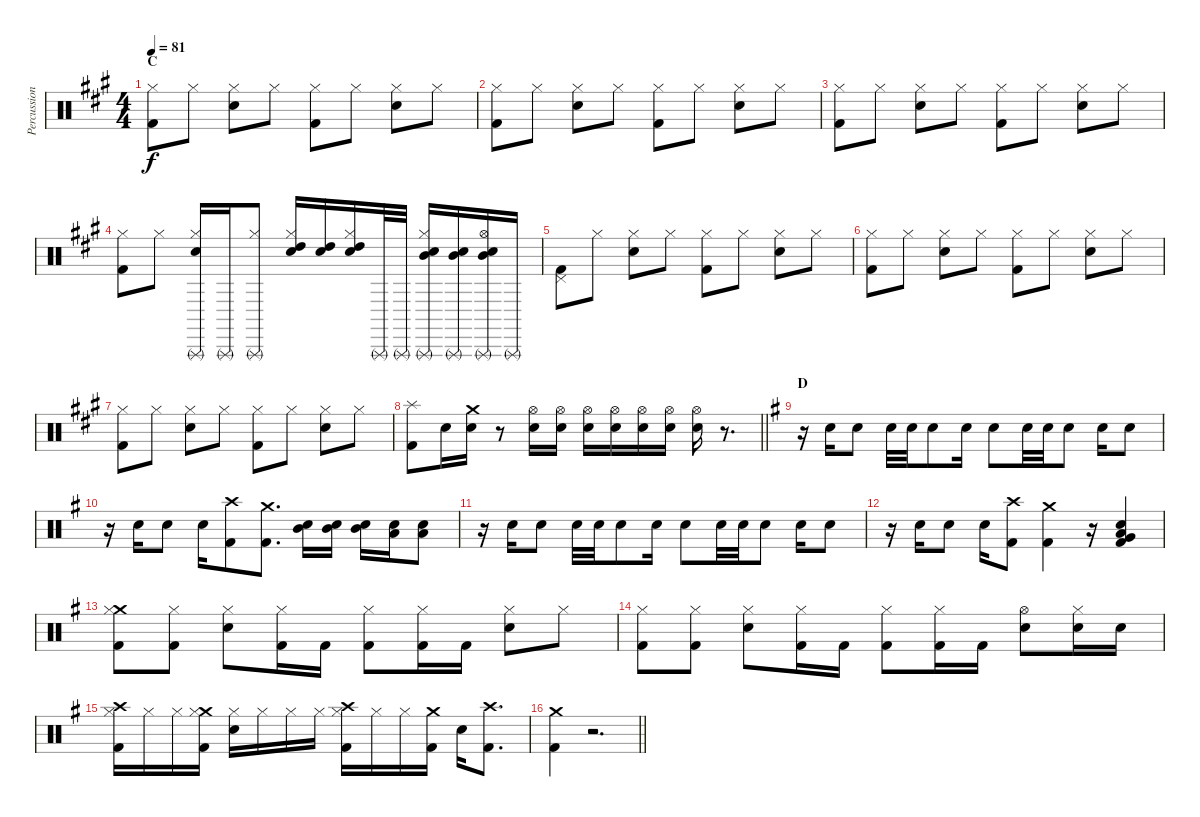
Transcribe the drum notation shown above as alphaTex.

\track ("Percussion" "Percussion") {instrument percussion}
\staff {score}
\articulation defaults
\ts (4 4)
\section ("" "C")
\tempo 81
\clef neutral
\ks f#minor
("Hi-Hat (closed)" "Kick (hit) 2").8{dy f volume 16} "Hi-Hat (closed)".8 ("Hi-Hat (closed)" "Snare (hit) 2").8 "Hi-Hat (closed)".8 ("Hi-Hat (closed)" "Kick (hit) 2").8 "Hi-Hat (closed)".8 ("Hi-Hat (closed)" "Snare (hit) 2").8 "Hi-Hat (closed)".8 |
("Hi-Hat (closed)" "Kick (hit) 2").8 "Hi-Hat (closed)".8 ("Hi-Hat (closed)" "Snare (hit) 2").8 "Hi-Hat (closed)".8 ("Hi-Hat (closed)" "Kick (hit) 2").8 "Hi-Hat (closed)".8 ("Hi-Hat (closed)" "Snare (hit) 2").8 "Hi-Hat (closed)".8 |
("Hi-Hat (closed)" "Kick (hit) 2").8 "Hi-Hat (closed)".8 ("Hi-Hat (closed)" "Snare (hit) 2").8 "Hi-Hat (closed)".8 ("Hi-Hat (closed)" "Kick (hit) 2").8 "Hi-Hat (closed)".8 ("Hi-Hat (closed)" "Snare (hit) 2").8 "Hi-Hat (closed)".8 |
("Hi-Hat (closed)" "Kick (hit) 2").8 "Hi-Hat (closed)".8 ("Triangle (rnute)" "Hi-Hat (closed)" "Snare (hit) 2").16 "Triangle (rnute)".16 ("Triangle (rnute)" "Hi-Hat (closed)").8 ("High Tom (hit)" "Hi-Hat (closed)" "Electric Snare (hit)").16 ("High Tom (hit)" "Electric Snare (hit)").16 ("High Tom (hit)" "Hi-Hat (closed)" "Electric Snare (hit)").16 "Triangle (rnute)".32 "Triangle (rnute)".32 ("Mid Tom (hit)" "Triangle (rnute)" "Hi-Hat (closed)" "Electric Snare (hit)").16 ("Mid Tom (hit)" "Triangle (rnute)" "Electric Snare (hit)").16 ("Mid Tom (hit)" "Triangle (rnute)" "Hi-Hat (open)" "Electric Snare (hit)").16 "Triangle (rnute)".16 |
("Pedal Hi-Hat (hit)" "Kick (hit) 2").8 "Hi-Hat (closed)".8 ("Hi-Hat (closed)" "Snare (hit) 2").8 "Hi-Hat (closed)".8 ("Hi-Hat (closed)" "Kick (hit) 2").8 "Hi-Hat (closed)".8 ("Hi-Hat (closed)" "Snare (hit) 2").8 "Hi-Hat (closed)".8 |
("Hi-Hat (closed)" "Kick (hit) 2").8 "Hi-Hat (closed)".8 ("Hi-Hat (closed)" "Snare (hit) 2").8 "Hi-Hat (closed)".8 ("Hi-Hat (closed)" "Kick (hit) 2").8 "Hi-Hat (closed)".8 ("Hi-Hat (closed)" "Snare (hit) 2").8 "Hi-Hat (closed)".8 |
("Hi-Hat (closed)" "Kick (hit) 2").8 "Hi-Hat (closed)".8 ("Hi-Hat (closed)" "Snare (hit) 2").8 "Hi-Hat (closed)".8 ("Hi-Hat (closed)" "Kick (hit) 2").8 "Hi-Hat (closed)".8 ("Hi-Hat (closed)" "Snare (hit) 2").8 "Hi-Hat (closed)".8 |
\barLineRight lightlight
("Splash (hit)" "Kick (hit) 2").8 "Snare (hit) 2".16 ("Crash medium (hit)" "Snare (hit) 2").16 r.8 ("Hi-Hat (open)" "Snare (hit) 2").16{volume 6} ("Hi-Hat (open)" "Snare (hit) 2").16{volume 16} ("Hi-Hat (open)" "Snare (hit) 2").16 ("Hi-Hat (open)" "Snare (hit) 2").16 ("Hi-Hat (open)" "Snare (hit) 2").16 ("Hi-Hat (open)" "Snare (hit) 2").16 ("Hi-Hat (open)" "Snare (hit) 2").16 r.8{d} |
\section ("" "D")
\ks eminor
r.16{volume 16} "Snare (hit) 2".16 "Snare (hit) 2".8 "Snare (hit) 2".32 "Snare (hit) 2".32 "Snare (hit) 2".8 "Snare (hit) 2".16 "Snare (hit) 2".8 "Snare (hit) 2".32 "Snare (hit) 2".32 "Snare (hit) 2".8 "Snare (hit) 2".16 "Snare (hit) 2".8 |
r.16 "Snare (hit) 2".16 "Snare (hit) 2".8 "Snare (hit) 2".16 ("Crash high (hit)" "Kick (hit) 2").8 ("Crash medium (hit)" "Kick (hit) 2").8{d} ("Mid Tom (hit)" "Electric Snare (hit)").16 ("Mid Tom (hit)" "Electric Snare (hit)").16 ("Mid Tom (hit)" "Electric Snare (hit)").16 ("Low Tom (hit)" "Electric Snare (hit)").16 ("Low Tom (hit)" "Electric Snare (hit)").8 |
r.16 "Snare (hit) 2".16 "Snare (hit) 2".8 "Snare (hit) 2".32 "Snare (hit) 2".32 "Snare (hit) 2".8 "Snare (hit) 2".16 "Snare (hit) 2".8 "Snare (hit) 2".32 "Snare (hit) 2".32 "Snare (hit) 2".8 "Snare (hit) 2".16 "Snare (hit) 2".8 |
r.16 "Snare (hit) 2".16 "Snare (hit) 2".8 "Snare (hit) 2".16 ("Crash high (hit)" "Kick (hit) 2").8 ("Crash medium (hit)" "Kick (hit) 2").4 r.16 ("Very Low Tom (hit)" "Low Floor Tom (hit)" "Electric Snare (hit)" "Kick (hit) 2").4 |
("Crash medium (hit)" "Hi-Hat (closed)" "Kick (hit) 2").8 ("Hi-Hat (closed)" "Kick (hit) 2").8 ("Hi-Hat (closed)" "Snare (hit) 2").8 ("Hi-Hat (closed)" "Kick (hit) 2").16 "Kick (hit) 2".16 ("Hi-Hat (closed)" "Kick (hit) 2").8 ("Hi-Hat (closed)" "Kick (hit) 2").16 "Kick (hit) 2".16 ("Hi-Hat (closed)" "Snare (hit) 2").8 "Hi-Hat (closed)".8 |
("Hi-Hat (closed)" "Kick (hit) 2").8 ("Hi-Hat (closed)" "Kick (hit) 2").8 ("Hi-Hat (closed)" "Snare (hit) 2").8 ("Hi-Hat (closed)" "Kick (hit) 2").16 "Kick (hit) 2".16 ("Hi-Hat (closed)" "Kick (hit) 2").8 ("Hi-Hat (closed)" "Kick (hit) 2").16 "Kick (hit) 2".16 ("Hi-Hat (open)" "Snare (hit) 2").8 ("Hi-Hat (closed)" "Snare (hit) 2").16 "Snare (hit) 2".16 |
("Crash high (hit)" "Hi-Hat (closed)" "Kick (hit) 2").16 "Hi-Hat (closed)".16 "Hi-Hat (closed)".16 ("Crash medium (hit)" "Hi-Hat (closed)" "Kick (hit) 2").16 ("Hi-Hat (closed)" "Snare (hit) 2").16 "Hi-Hat (closed)".16 "Hi-Hat (closed)".16 "Hi-Hat (closed)".16 ("Crash high (hit)" "Hi-Hat (closed)" "Kick (hit) 2").16 "Hi-Hat (closed)".16 "Hi-Hat (closed)".16 ("Crash medium (hit)" "Kick (hit) 2").16 "Snare (hit) 2".16 ("Crash high (hit)" "Kick (hit) 2").8{d} |
\barLineRight lightlight
("Crash medium (hit)" "Kick (hit) 2").4 r.2{d}
